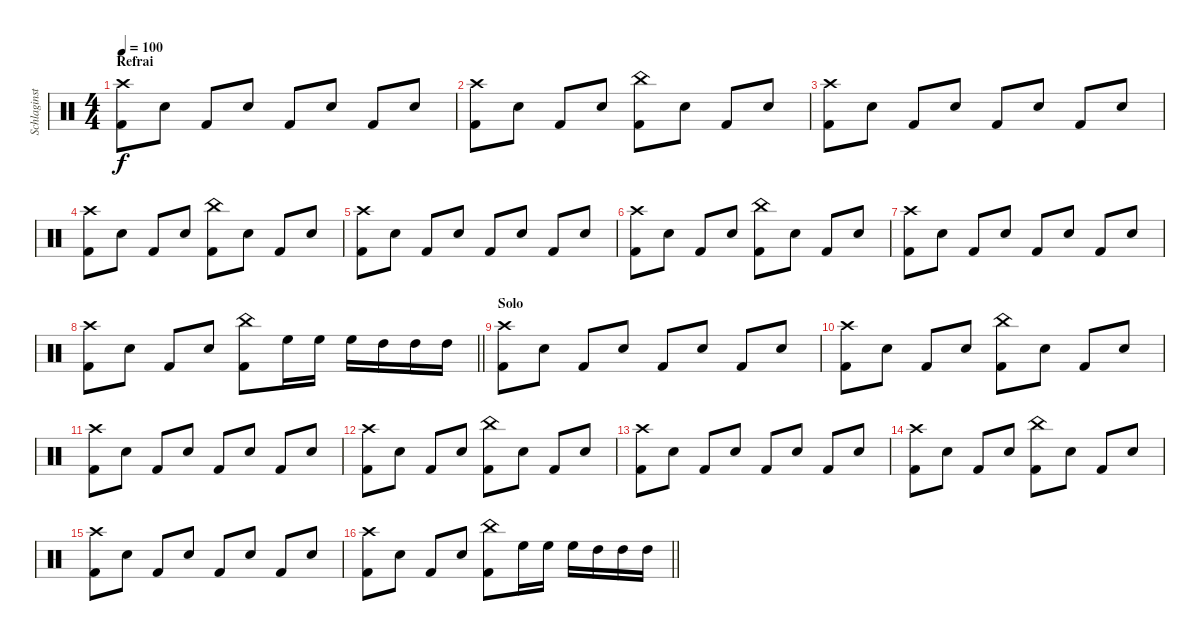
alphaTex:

\track ("Schlaginstrumente - Auswahl" "Schlaginst") {instrument percussion}
\staff {score}
\articulation defaults
\ts (4 4)
\section ("" "Refrai")
\tempo 100
\clef neutral
\ks c
("Crash high (hit)" "Kick (hit) 2").8{dy f} "Snare (hit) 2".8 "Kick (hit) 2".8 "Snare (hit) 2".8 "Kick (hit) 2".8 "Snare (hit) 2".8 "Kick (hit) 2".8 "Snare (hit) 2".8 |
("Crash high (hit)" "Kick (hit) 2").8 "Snare (hit) 2".8 "Kick (hit) 2".8 "Snare (hit) 2".8 ("China (hit)" "Kick (hit) 2").8 "Snare (hit) 2".8 "Kick (hit) 2".8 "Snare (hit) 2".8 |
("Crash high (hit)" "Kick (hit) 2").8 "Snare (hit) 2".8 "Kick (hit) 2".8 "Snare (hit) 2".8 "Kick (hit) 2".8 "Snare (hit) 2".8 "Kick (hit) 2".8 "Snare (hit) 2".8 |
("Crash high (hit)" "Kick (hit) 2").8 "Snare (hit) 2".8 "Kick (hit) 2".8 "Snare (hit) 2".8 ("China (hit)" "Kick (hit) 2").8 "Snare (hit) 2".8 "Kick (hit) 2".8 "Snare (hit) 2".8 |
("Crash high (hit)" "Kick (hit) 2").8 "Snare (hit) 2".8 "Kick (hit) 2".8 "Snare (hit) 2".8 "Kick (hit) 2".8 "Snare (hit) 2".8 "Kick (hit) 2".8 "Snare (hit) 2".8 |
("Crash high (hit)" "Kick (hit) 2").8 "Snare (hit) 2".8 "Kick (hit) 2".8 "Snare (hit) 2".8 ("China (hit)" "Kick (hit) 2").8 "Snare (hit) 2".8 "Kick (hit) 2".8 "Snare (hit) 2".8 |
("Crash high (hit)" "Kick (hit) 2").8 "Snare (hit) 2".8 "Kick (hit) 2".8 "Snare (hit) 2".8 "Kick (hit) 2".8 "Snare (hit) 2".8 "Kick (hit) 2".8 "Snare (hit) 2".8 |
\barLineRight lightlight
("Crash high (hit)" "Kick (hit) 2").8 "Snare (hit) 2".8 "Kick (hit) 2".8 "Snare (hit) 2".8 ("China (hit)" "Kick (hit) 2").8 "High Floor Tom (hit)".16 "High Floor Tom (hit)".16 "High Floor Tom (hit)".16 "High Tom (hit)".16 "High Tom (hit)".16 "High Tom (hit)".16 |
\section ("" "Solo")
("Crash high (hit)" "Kick (hit) 2").8 "Snare (hit) 2".8 "Kick (hit) 2".8 "Snare (hit) 2".8 "Kick (hit) 2".8 "Snare (hit) 2".8 "Kick (hit) 2".8 "Snare (hit) 2".8 |
("Crash high (hit)" "Kick (hit) 2").8 "Snare (hit) 2".8 "Kick (hit) 2".8 "Snare (hit) 2".8 ("China (hit)" "Kick (hit) 2").8 "Snare (hit) 2".8 "Kick (hit) 2".8 "Snare (hit) 2".8 |
("Crash high (hit)" "Kick (hit) 2").8 "Snare (hit) 2".8 "Kick (hit) 2".8 "Snare (hit) 2".8 "Kick (hit) 2".8 "Snare (hit) 2".8 "Kick (hit) 2".8 "Snare (hit) 2".8 |
("Crash high (hit)" "Kick (hit) 2").8 "Snare (hit) 2".8 "Kick (hit) 2".8 "Snare (hit) 2".8 ("China (hit)" "Kick (hit) 2").8 "Snare (hit) 2".8 "Kick (hit) 2".8 "Snare (hit) 2".8 |
("Crash high (hit)" "Kick (hit) 2").8 "Snare (hit) 2".8 "Kick (hit) 2".8 "Snare (hit) 2".8 "Kick (hit) 2".8 "Snare (hit) 2".8 "Kick (hit) 2".8 "Snare (hit) 2".8 |
("Crash high (hit)" "Kick (hit) 2").8 "Snare (hit) 2".8 "Kick (hit) 2".8 "Snare (hit) 2".8 ("China (hit)" "Kick (hit) 2").8 "Snare (hit) 2".8 "Kick (hit) 2".8 "Snare (hit) 2".8 |
("Crash high (hit)" "Kick (hit) 2").8 "Snare (hit) 2".8 "Kick (hit) 2".8 "Snare (hit) 2".8 "Kick (hit) 2".8 "Snare (hit) 2".8 "Kick (hit) 2".8 "Snare (hit) 2".8 |
\barLineRight lightlight
("Crash high (hit)" "Kick (hit) 2").8 "Snare (hit) 2".8 "Kick (hit) 2".8 "Snare (hit) 2".8 ("China (hit)" "Kick (hit) 2").8 "High Floor Tom (hit)".16 "High Floor Tom (hit)".16 "High Floor Tom (hit)".16 "High Tom (hit)".16 "High Tom (hit)".16 "High Tom (hit)".16
